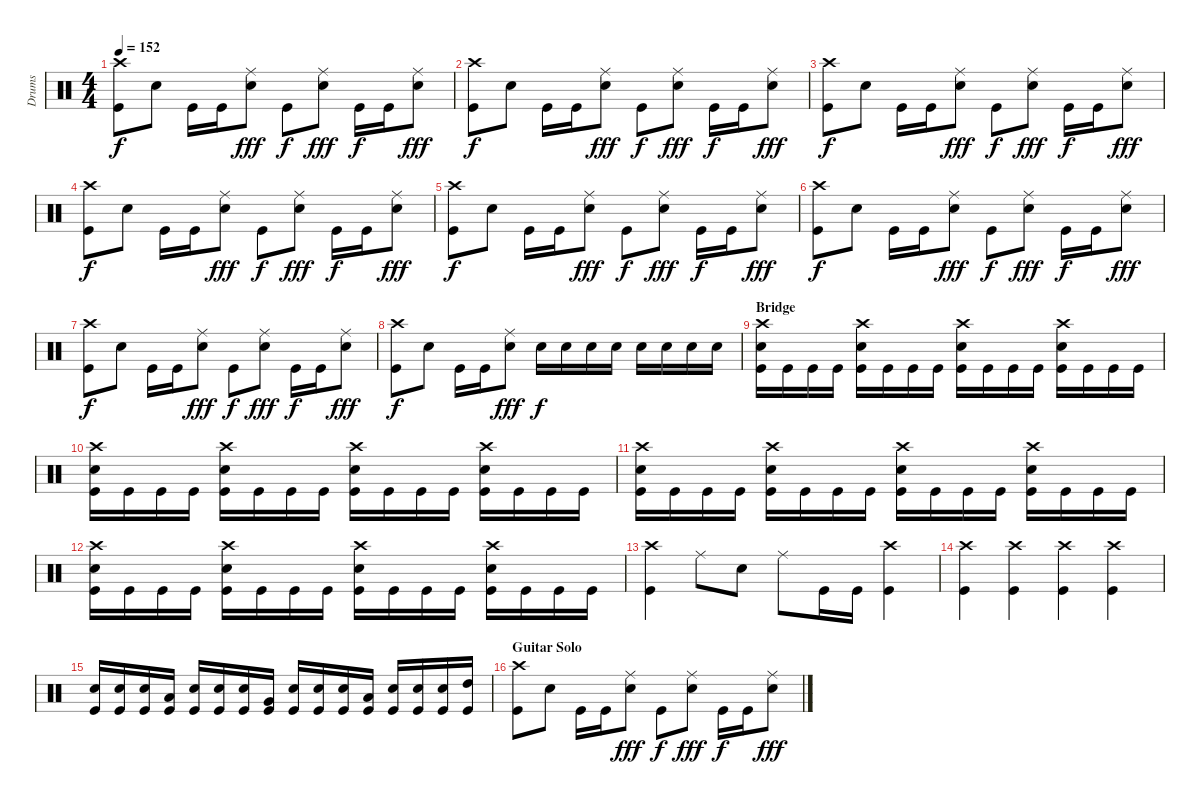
\track ("Drums" "Drums") {instrument percussion}
\staff {score}
\articulation defaults
\ts (4 4)
\tempo 152
\clef neutral
\ks c
("Crash high (hit)" "Kick (hit)").8{dy f} "Snare (hit) 2".8 "Kick (hit)".16 "Kick (hit)".16 ("Ride (middle)" "Snare (hit) 2").8{dy fff} "Kick (hit)".8{dy f} ("Ride (middle)" "Snare (hit) 2").8{dy fff} "Kick (hit)".16{dy f} "Kick (hit)".16 ("Ride (middle)" "Snare (hit) 2").8{dy fff} |
("Crash high (hit)" "Kick (hit)").8{dy f} "Snare (hit) 2".8 "Kick (hit)".16 "Kick (hit)".16 ("Ride (middle)" "Snare (hit) 2").8{dy fff} "Kick (hit)".8{dy f} ("Ride (middle)" "Snare (hit) 2").8{dy fff} "Kick (hit)".16{dy f} "Kick (hit)".16 ("Ride (middle)" "Snare (hit) 2").8{dy fff} |
("Crash high (hit)" "Kick (hit)").8{dy f} "Snare (hit) 2".8 "Kick (hit)".16 "Kick (hit)".16 ("Ride (middle)" "Snare (hit) 2").8{dy fff} "Kick (hit)".8{dy f} ("Ride (middle)" "Snare (hit) 2").8{dy fff} "Kick (hit)".16{dy f} "Kick (hit)".16 ("Ride (middle)" "Snare (hit) 2").8{dy fff} |
("Crash high (hit)" "Kick (hit)").8{dy f} "Snare (hit) 2".8 "Kick (hit)".16 "Kick (hit)".16 ("Ride (middle)" "Snare (hit) 2").8{dy fff} "Kick (hit)".8{dy f} ("Ride (middle)" "Snare (hit) 2").8{dy fff} "Kick (hit)".16{dy f} "Kick (hit)".16 ("Ride (middle)" "Snare (hit) 2").8{dy fff} |
("Crash high (hit)" "Kick (hit)").8{dy f} "Snare (hit) 2".8 "Kick (hit)".16 "Kick (hit)".16 ("Ride (middle)" "Snare (hit) 2").8{dy fff} "Kick (hit)".8{dy f} ("Ride (middle)" "Snare (hit) 2").8{dy fff} "Kick (hit)".16{dy f} "Kick (hit)".16 ("Ride (middle)" "Snare (hit) 2").8{dy fff} |
("Crash high (hit)" "Kick (hit)").8{dy f} "Snare (hit) 2".8 "Kick (hit)".16 "Kick (hit)".16 ("Ride (middle)" "Snare (hit) 2").8{dy fff} "Kick (hit)".8{dy f} ("Ride (middle)" "Snare (hit) 2").8{dy fff} "Kick (hit)".16{dy f} "Kick (hit)".16 ("Ride (middle)" "Snare (hit) 2").8{dy fff} |
("Crash high (hit)" "Kick (hit)").8{dy f} "Snare (hit) 2".8 "Kick (hit)".16 "Kick (hit)".16 ("Ride (middle)" "Snare (hit) 2").8{dy fff} "Kick (hit)".8{dy f} ("Ride (middle)" "Snare (hit) 2").8{dy fff} "Kick (hit)".16{dy f} "Kick (hit)".16 ("Ride (middle)" "Snare (hit) 2").8{dy fff} |
("Crash high (hit)" "Kick (hit)").8{dy f} "Snare (hit) 2".8 "Kick (hit)".16 "Kick (hit)".16 ("Ride (middle)" "Snare (hit) 2").8{dy fff} "Snare (hit) 2".16{dy f} "Snare (hit) 2".16 "Snare (hit) 2".16 "Snare (hit) 2".16 "Snare (hit) 2".16 "Snare (hit) 2".16 "Snare (hit) 2".16 "Snare (hit) 2".16 |
\section ("" "Bridge")
("Crash high (hit)" "Snare (hit) 2" "Kick (hit)").16 "Kick (hit)".16 "Kick (hit)".16 "Kick (hit)".16 ("Crash high (hit)" "Snare (hit) 2" "Kick (hit)").16 "Kick (hit)".16 "Kick (hit)".16 "Kick (hit)".16 ("Crash high (hit)" "Snare (hit) 2" "Kick (hit)").16 "Kick (hit)".16 "Kick (hit)".16 "Kick (hit)".16 ("Crash high (hit)" "Snare (hit) 2" "Kick (hit)").16 "Kick (hit)".16 "Kick (hit)".16 "Kick (hit)".16 |
("Crash high (hit)" "Snare (hit) 2" "Kick (hit)").16 "Kick (hit)".16 "Kick (hit)".16 "Kick (hit)".16 ("Crash high (hit)" "Snare (hit) 2" "Kick (hit)").16 "Kick (hit)".16 "Kick (hit)".16 "Kick (hit)".16 ("Crash high (hit)" "Snare (hit) 2" "Kick (hit)").16 "Kick (hit)".16 "Kick (hit)".16 "Kick (hit)".16 ("Crash high (hit)" "Snare (hit) 2" "Kick (hit)").16 "Kick (hit)".16 "Kick (hit)".16 "Kick (hit)".16 |
("Crash high (hit)" "Snare (hit) 2" "Kick (hit)").16 "Kick (hit)".16 "Kick (hit)".16 "Kick (hit)".16 ("Crash high (hit)" "Snare (hit) 2" "Kick (hit)").16 "Kick (hit)".16 "Kick (hit)".16 "Kick (hit)".16 ("Crash high (hit)" "Snare (hit) 2" "Kick (hit)").16 "Kick (hit)".16 "Kick (hit)".16 "Kick (hit)".16 ("Crash high (hit)" "Snare (hit) 2" "Kick (hit)").16 "Kick (hit)".16 "Kick (hit)".16 "Kick (hit)".16 |
("Crash high (hit)" "Snare (hit) 2" "Kick (hit)").16 "Kick (hit)".16 "Kick (hit)".16 "Kick (hit)".16 ("Crash high (hit)" "Snare (hit) 2" "Kick (hit)").16 "Kick (hit)".16 "Kick (hit)".16 "Kick (hit)".16 ("Crash high (hit)" "Snare (hit) 2" "Kick (hit)").16 "Kick (hit)".16 "Kick (hit)".16 "Kick (hit)".16 ("Crash high (hit)" "Snare (hit) 2" "Kick (hit)").16 "Kick (hit)".16 "Kick (hit)".16 "Kick (hit)".16 |
("Crash high (hit)" "Kick (hit)").4 "Ride (middle)".8 "Snare (hit) 2".8 "Ride (middle)".8 "Kick (hit)".16 "Kick (hit)".16 ("Crash high (hit)" "Kick (hit)").4 |
("Crash high (hit)" "Kick (hit)").4 ("Crash high (hit)" "Kick (hit)").4 ("Crash high (hit)" "Kick (hit)").4 ("Crash high (hit)" "Kick (hit)").4 |
("Snare (hit) 2" "Kick (hit)").16 ("Snare (hit) 2" "Kick (hit)").16 ("Snare (hit) 2" "Kick (hit)").16 ("Low Floor Tom (hit)" "Kick (hit)").16 ("Snare (hit) 2" "Kick (hit)").16 ("Snare (hit) 2" "Kick (hit)").16 ("Snare (hit) 2" "Kick (hit)").16 ("Very Low Tom (hit)" "Kick (hit)").16 ("Snare (hit) 2" "Kick (hit)").16 ("Snare (hit) 2" "Kick (hit)").16 ("Snare (hit) 2" "Kick (hit)").16 ("Low Tom (hit)" "Kick (hit)").16 ("Snare (hit) 2" "Kick (hit)").16 ("Snare (hit) 2" "Kick (hit)").16 ("Snare (hit) 2" "Kick (hit)").16 ("High Tom (hit)" "Kick (hit)").16 |
\section ("" "Guitar Solo")
("Crash high (hit)" "Kick (hit)").8 "Snare (hit) 2".8 "Kick (hit)".16 "Kick (hit)".16 ("Ride (middle)" "Snare (hit) 2").8{dy fff} "Kick (hit)".8{dy f} ("Ride (middle)" "Snare (hit) 2").8{dy fff} "Kick (hit)".16{dy f} "Kick (hit)".16 ("Ride (middle)" "Snare (hit) 2").8{dy fff}
